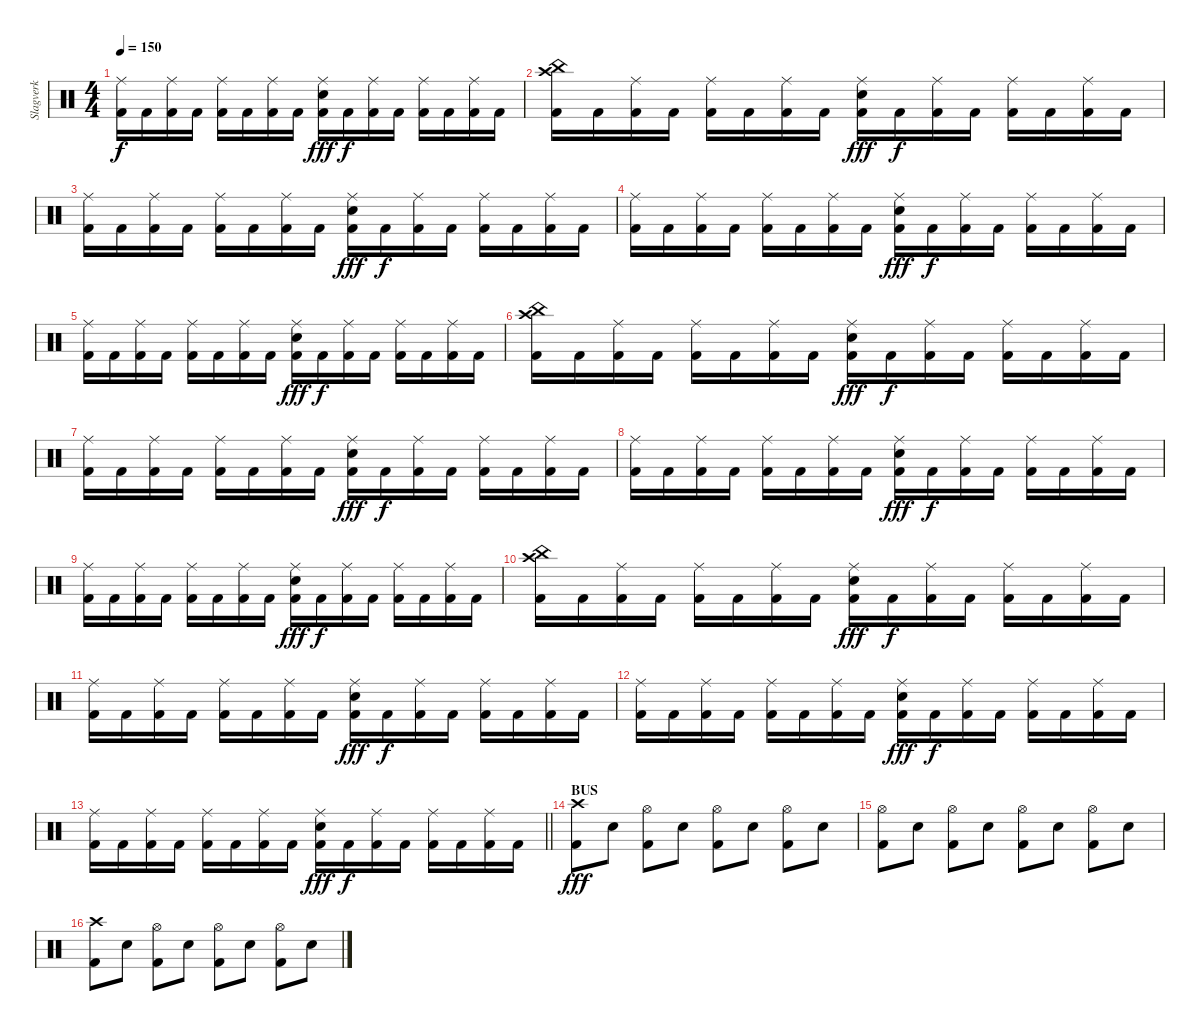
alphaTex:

\track ("Slagverk" "Slagverk") {instrument percussion}
\staff {score}
\articulation defaults
\ts (4 4)
\tempo 150
\clef neutral
\ks c
("Ride (middle)" "Kick (hit) 2").16{dy f} "Kick (hit) 2".16 ("Ride (middle)" "Kick (hit) 2").16 "Kick (hit) 2".16 ("Ride (middle)" "Kick (hit) 2").16 "Kick (hit) 2".16 ("Ride (middle)" "Kick (hit) 2").16 "Kick (hit) 2".16 ("Ride (middle)" "Electric Snare (hit)" "Kick (hit) 2").16{dy fff} "Kick (hit) 2".16{dy f} ("Ride (middle)" "Kick (hit) 2").16 "Kick (hit) 2".16 ("Ride (middle)" "Kick (hit) 2").16 "Kick (hit) 2".16 ("Ride (middle)" "Kick (hit) 2").16 "Kick (hit) 2".16 |
("China (hit)" "Crash high (hit)" "Kick (hit) 2").16 "Kick (hit) 2".16 ("Ride (middle)" "Kick (hit) 2").16 "Kick (hit) 2".16 ("Ride (middle)" "Kick (hit) 2").16 "Kick (hit) 2".16 ("Ride (middle)" "Kick (hit) 2").16 "Kick (hit) 2".16 ("Ride (middle)" "Electric Snare (hit)" "Kick (hit) 2").16{dy fff} "Kick (hit) 2".16{dy f} ("Ride (middle)" "Kick (hit) 2").16 "Kick (hit) 2".16 ("Ride (middle)" "Kick (hit) 2").16 "Kick (hit) 2".16 ("Ride (middle)" "Kick (hit) 2").16 "Kick (hit) 2".16 |
("Ride (middle)" "Kick (hit) 2").16 "Kick (hit) 2".16 ("Ride (middle)" "Kick (hit) 2").16 "Kick (hit) 2".16 ("Ride (middle)" "Kick (hit) 2").16 "Kick (hit) 2".16 ("Ride (middle)" "Kick (hit) 2").16 "Kick (hit) 2".16 ("Ride (middle)" "Electric Snare (hit)" "Kick (hit) 2").16{dy fff} "Kick (hit) 2".16{dy f} ("Ride (middle)" "Kick (hit) 2").16 "Kick (hit) 2".16 ("Ride (middle)" "Kick (hit) 2").16 "Kick (hit) 2".16 ("Ride (middle)" "Kick (hit) 2").16 "Kick (hit) 2".16 |
("Ride (middle)" "Kick (hit) 2").16 "Kick (hit) 2".16 ("Ride (middle)" "Kick (hit) 2").16 "Kick (hit) 2".16 ("Ride (middle)" "Kick (hit) 2").16 "Kick (hit) 2".16 ("Ride (middle)" "Kick (hit) 2").16 "Kick (hit) 2".16 ("Ride (middle)" "Electric Snare (hit)" "Kick (hit) 2").16{dy fff} "Kick (hit) 2".16{dy f} ("Ride (middle)" "Kick (hit) 2").16 "Kick (hit) 2".16 ("Ride (middle)" "Kick (hit) 2").16 "Kick (hit) 2".16 ("Ride (middle)" "Kick (hit) 2").16 "Kick (hit) 2".16 |
("Ride (middle)" "Kick (hit) 2").16 "Kick (hit) 2".16 ("Ride (middle)" "Kick (hit) 2").16 "Kick (hit) 2".16 ("Ride (middle)" "Kick (hit) 2").16 "Kick (hit) 2".16 ("Ride (middle)" "Kick (hit) 2").16 "Kick (hit) 2".16 ("Ride (middle)" "Electric Snare (hit)" "Kick (hit) 2").16{dy fff} "Kick (hit) 2".16{dy f} ("Ride (middle)" "Kick (hit) 2").16 "Kick (hit) 2".16 ("Ride (middle)" "Kick (hit) 2").16 "Kick (hit) 2".16 ("Ride (middle)" "Kick (hit) 2").16 "Kick (hit) 2".16 |
("China (hit)" "Crash high (hit)" "Kick (hit) 2").16 "Kick (hit) 2".16 ("Ride (middle)" "Kick (hit) 2").16 "Kick (hit) 2".16 ("Ride (middle)" "Kick (hit) 2").16 "Kick (hit) 2".16 ("Ride (middle)" "Kick (hit) 2").16 "Kick (hit) 2".16 ("Ride (middle)" "Electric Snare (hit)" "Kick (hit) 2").16{dy fff} "Kick (hit) 2".16{dy f} ("Ride (middle)" "Kick (hit) 2").16 "Kick (hit) 2".16 ("Ride (middle)" "Kick (hit) 2").16 "Kick (hit) 2".16 ("Ride (middle)" "Kick (hit) 2").16 "Kick (hit) 2".16 |
("Ride (middle)" "Kick (hit) 2").16 "Kick (hit) 2".16 ("Ride (middle)" "Kick (hit) 2").16 "Kick (hit) 2".16 ("Ride (middle)" "Kick (hit) 2").16 "Kick (hit) 2".16 ("Ride (middle)" "Kick (hit) 2").16 "Kick (hit) 2".16 ("Ride (middle)" "Electric Snare (hit)" "Kick (hit) 2").16{dy fff} "Kick (hit) 2".16{dy f} ("Ride (middle)" "Kick (hit) 2").16 "Kick (hit) 2".16 ("Ride (middle)" "Kick (hit) 2").16 "Kick (hit) 2".16 ("Ride (middle)" "Kick (hit) 2").16 "Kick (hit) 2".16 |
("Ride (middle)" "Kick (hit) 2").16 "Kick (hit) 2".16 ("Ride (middle)" "Kick (hit) 2").16 "Kick (hit) 2".16 ("Ride (middle)" "Kick (hit) 2").16 "Kick (hit) 2".16 ("Ride (middle)" "Kick (hit) 2").16 "Kick (hit) 2".16 ("Ride (middle)" "Electric Snare (hit)" "Kick (hit) 2").16{dy fff} "Kick (hit) 2".16{dy f} ("Ride (middle)" "Kick (hit) 2").16 "Kick (hit) 2".16 ("Ride (middle)" "Kick (hit) 2").16 "Kick (hit) 2".16 ("Ride (middle)" "Kick (hit) 2").16 "Kick (hit) 2".16 |
("Ride (middle)" "Kick (hit) 2").16 "Kick (hit) 2".16 ("Ride (middle)" "Kick (hit) 2").16 "Kick (hit) 2".16 ("Ride (middle)" "Kick (hit) 2").16 "Kick (hit) 2".16 ("Ride (middle)" "Kick (hit) 2").16 "Kick (hit) 2".16 ("Ride (middle)" "Electric Snare (hit)" "Kick (hit) 2").16{dy fff} "Kick (hit) 2".16{dy f} ("Ride (middle)" "Kick (hit) 2").16 "Kick (hit) 2".16 ("Ride (middle)" "Kick (hit) 2").16 "Kick (hit) 2".16 ("Ride (middle)" "Kick (hit) 2").16 "Kick (hit) 2".16 |
("China (hit)" "Crash high (hit)" "Kick (hit) 2").16 "Kick (hit) 2".16 ("Ride (middle)" "Kick (hit) 2").16 "Kick (hit) 2".16 ("Ride (middle)" "Kick (hit) 2").16 "Kick (hit) 2".16 ("Ride (middle)" "Kick (hit) 2").16 "Kick (hit) 2".16 ("Ride (middle)" "Electric Snare (hit)" "Kick (hit) 2").16{dy fff} "Kick (hit) 2".16{dy f} ("Ride (middle)" "Kick (hit) 2").16 "Kick (hit) 2".16 ("Ride (middle)" "Kick (hit) 2").16 "Kick (hit) 2".16 ("Ride (middle)" "Kick (hit) 2").16 "Kick (hit) 2".16 |
("Ride (middle)" "Kick (hit) 2").16 "Kick (hit) 2".16 ("Ride (middle)" "Kick (hit) 2").16 "Kick (hit) 2".16 ("Ride (middle)" "Kick (hit) 2").16 "Kick (hit) 2".16 ("Ride (middle)" "Kick (hit) 2").16 "Kick (hit) 2".16 ("Ride (middle)" "Electric Snare (hit)" "Kick (hit) 2").16{dy fff} "Kick (hit) 2".16{dy f} ("Ride (middle)" "Kick (hit) 2").16 "Kick (hit) 2".16 ("Ride (middle)" "Kick (hit) 2").16 "Kick (hit) 2".16 ("Ride (middle)" "Kick (hit) 2").16 "Kick (hit) 2".16 |
("Ride (middle)" "Kick (hit) 2").16 "Kick (hit) 2".16 ("Ride (middle)" "Kick (hit) 2").16 "Kick (hit) 2".16 ("Ride (middle)" "Kick (hit) 2").16 "Kick (hit) 2".16 ("Ride (middle)" "Kick (hit) 2").16 "Kick (hit) 2".16 ("Ride (middle)" "Electric Snare (hit)" "Kick (hit) 2").16{dy fff} "Kick (hit) 2".16{dy f} ("Ride (middle)" "Kick (hit) 2").16 "Kick (hit) 2".16 ("Ride (middle)" "Kick (hit) 2").16 "Kick (hit) 2".16 ("Ride (middle)" "Kick (hit) 2").16 "Kick (hit) 2".16 |
\barLineRight lightlight
("Ride (middle)" "Kick (hit) 2").16 "Kick (hit) 2".16 ("Ride (middle)" "Kick (hit) 2").16 "Kick (hit) 2".16 ("Ride (middle)" "Kick (hit) 2").16 "Kick (hit) 2".16 ("Ride (middle)" "Kick (hit) 2").16 "Kick (hit) 2".16 ("Ride (middle)" "Electric Snare (hit)" "Kick (hit) 2").16{dy fff} "Kick (hit) 2".16{dy f} ("Ride (middle)" "Kick (hit) 2").16 "Kick (hit) 2".16 ("Ride (middle)" "Kick (hit) 2").16 "Kick (hit) 2".16 ("Ride (middle)" "Kick (hit) 2").16 "Kick (hit) 2".16 |
\section ("" "BUS")
("Crash high (hit)" "Kick (hit) 2").8{dy fff} "Electric Snare (hit)".8 ("Hi-Hat (open)" "Kick (hit) 2").8 "Electric Snare (hit)".8 ("Hi-Hat (open)" "Kick (hit) 2").8 "Electric Snare (hit)".8 ("Hi-Hat (open)" "Kick (hit) 2").8 "Electric Snare (hit)".8 |
("Hi-Hat (open)" "Kick (hit) 2").8 "Electric Snare (hit)".8 ("Hi-Hat (open)" "Kick (hit) 2").8 "Electric Snare (hit)".8 ("Hi-Hat (open)" "Kick (hit) 2").8 "Electric Snare (hit)".8 ("Hi-Hat (open)" "Kick (hit) 2").8 "Electric Snare (hit)".8 |
("Crash high (hit)" "Kick (hit) 2").8 "Electric Snare (hit)".8 ("Hi-Hat (open)" "Kick (hit) 2").8 "Electric Snare (hit)".8 ("Hi-Hat (open)" "Kick (hit) 2").8 "Electric Snare (hit)".8 ("Hi-Hat (open)" "Kick (hit) 2").8 "Electric Snare (hit)".8
